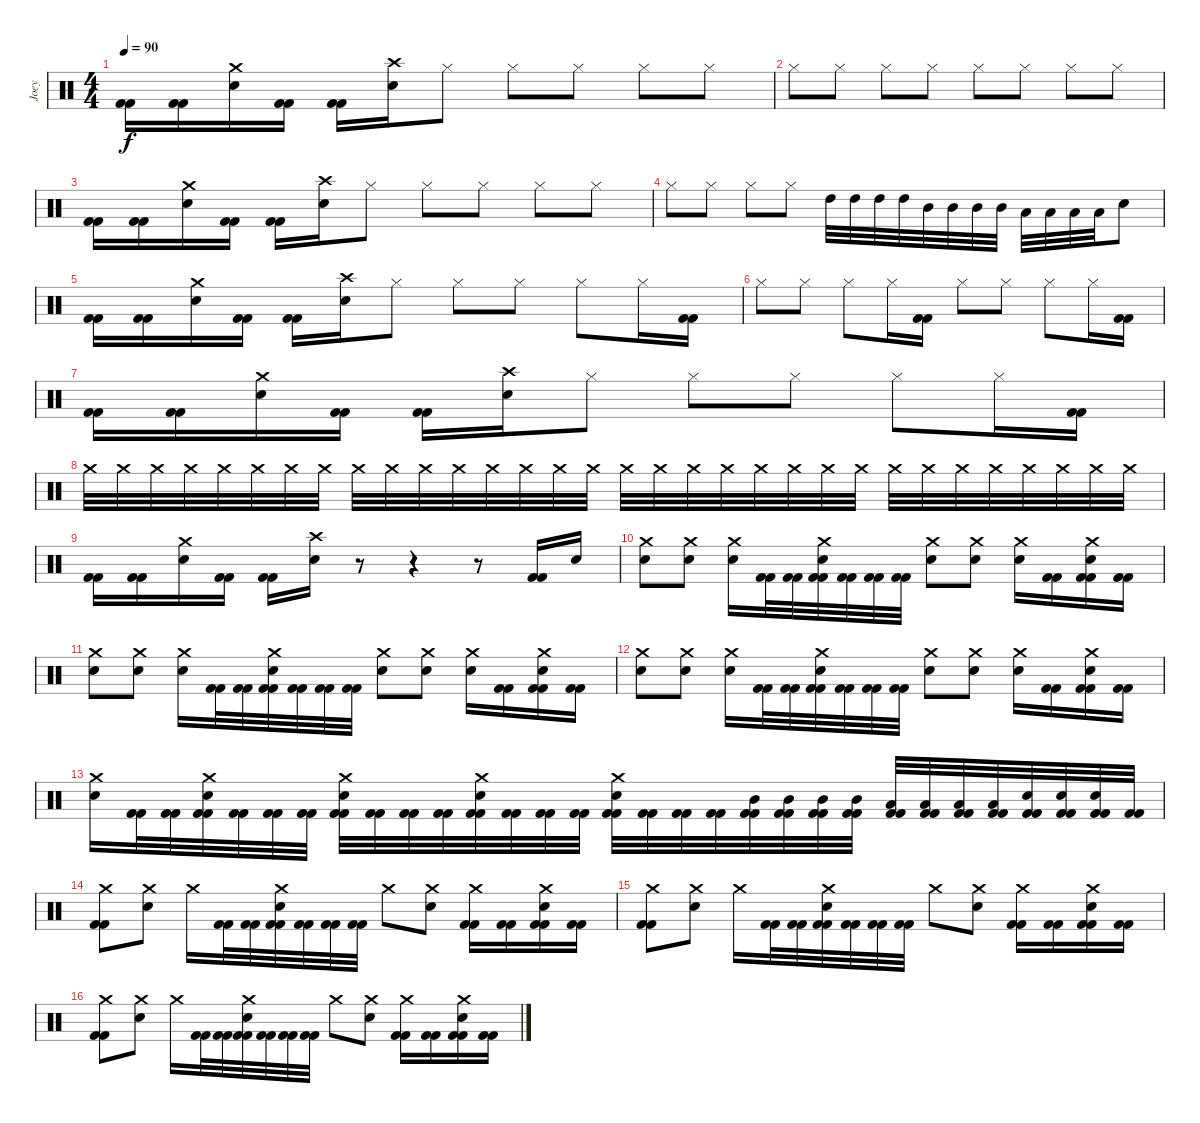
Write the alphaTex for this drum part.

\track ("Joey" "Joey") {instrument percussion}
\staff {score}
\articulation defaults
\ts (4 4)
\tempo 90
\clef neutral
\ks c
("Kick (hit) 2" "Kick (hit) 2").16{dy f} ("Kick (hit) 2" "Kick (hit) 2").16 ("Electric Snare (hit)" "Crash medium (hit)").16 ("Kick (hit) 2" "Kick (hit) 2").16 ("Kick (hit) 2" "Kick (hit) 2").16 ("Electric Snare (hit)" "Crash high (hit)").16 "Hi-Hat (closed)".8 "Hi-Hat (closed)".8 "Hi-Hat (closed)".8 "Hi-Hat (closed)".8 "Hi-Hat (closed)".8 |
"Hi-Hat (closed)".8 "Hi-Hat (closed)".8 "Hi-Hat (closed)".8 "Hi-Hat (closed)".8 "Hi-Hat (closed)".8 "Hi-Hat (closed)".8 "Hi-Hat (closed)".8 "Hi-Hat (closed)".8 |
("Kick (hit) 2" "Kick (hit) 2").16 ("Kick (hit) 2" "Kick (hit) 2").16 ("Electric Snare (hit)" "Crash medium (hit)").16 ("Kick (hit) 2" "Kick (hit) 2").16 ("Kick (hit) 2" "Kick (hit) 2").16 ("Electric Snare (hit)" "Crash high (hit)").16 "Hi-Hat (closed)".8 "Hi-Hat (closed)".8 "Hi-Hat (closed)".8 "Hi-Hat (closed)".8 "Hi-Hat (closed)".8 |
"Hi-Hat (closed)".8 "Hi-Hat (closed)".8 "Hi-Hat (closed)".8 "Hi-Hat (closed)".8 "High Tom (hit)".32 "High Tom (hit)".32 "High Tom (hit)".32 "High Tom (hit)".32 "Mid Tom (hit)".32 "Mid Tom (hit)".32 "Mid Tom (hit)".32 "Mid Tom (hit)".32 "Low Tom (hit)".32 "Low Tom (hit)".32 "Low Tom (hit)".32 "Low Tom (hit)".32 "Electric Snare (hit)".8 |
("Kick (hit) 2" "Kick (hit) 2").16 ("Kick (hit) 2" "Kick (hit) 2").16 ("Electric Snare (hit)" "Crash medium (hit)").16 ("Kick (hit) 2" "Kick (hit) 2").16 ("Kick (hit) 2" "Kick (hit) 2").16 ("Electric Snare (hit)" "Crash high (hit)").16 "Hi-Hat (closed)".8 "Hi-Hat (closed)".8 "Hi-Hat (closed)".8 "Hi-Hat (closed)".8 "Hi-Hat (closed)".16 ("Kick (hit) 2" "Kick (hit) 2").16 |
"Hi-Hat (closed)".8 "Hi-Hat (closed)".8 "Hi-Hat (closed)".8 "Hi-Hat (closed)".16 ("Kick (hit) 2" "Kick (hit) 2").16 "Hi-Hat (closed)".8 "Hi-Hat (closed)".8 "Hi-Hat (closed)".8 "Hi-Hat (closed)".16 ("Kick (hit) 2" "Kick (hit) 2").16 |
("Kick (hit) 2" "Kick (hit) 2").16 ("Kick (hit) 2" "Kick (hit) 2").16 ("Electric Snare (hit)" "Crash medium (hit)").16 ("Kick (hit) 2" "Kick (hit) 2").16 ("Kick (hit) 2" "Kick (hit) 2").16 ("Electric Snare (hit)" "Crash high (hit)").16 "Hi-Hat (closed)".8 "Hi-Hat (closed)".8 "Hi-Hat (closed)".8 "Hi-Hat (closed)".8 "Hi-Hat (closed)".16 ("Kick (hit) 2" "Kick (hit) 2").16 |
"Crash medium (hit)".32{volume 5} "Crash medium (hit)".32{volume 13} "Crash medium (hit)".32 "Crash medium (hit)".32 "Crash medium (hit)".32 "Crash medium (hit)".32 "Crash medium (hit)".32 "Crash medium (hit)".32 "Crash medium (hit)".32 "Crash medium (hit)".32 "Crash medium (hit)".32 "Crash medium (hit)".32 "Crash medium (hit)".32 "Crash medium (hit)".32 "Crash medium (hit)".32 "Crash medium (hit)".32 "Crash medium (hit)".32 "Crash medium (hit)".32 "Crash medium (hit)".32 "Crash medium (hit)".32 "Crash medium (hit)".32 "Crash medium (hit)".32 "Crash medium (hit)".32 "Crash medium (hit)".32 "Crash medium (hit)".32 "Crash medium (hit)".32 "Crash medium (hit)".32 "Crash medium (hit)".32 "Crash medium (hit)".32 "Crash medium (hit)".32 "Crash medium (hit)".32 "Crash medium (hit)".32 |
("Kick (hit) 2" "Kick (hit) 2").16 ("Kick (hit) 2" "Kick (hit) 2").16 ("Electric Snare (hit)" "Crash medium (hit)").16 ("Kick (hit) 2" "Kick (hit) 2").16 ("Kick (hit) 2" "Kick (hit) 2").16 ("Electric Snare (hit)" "Crash high (hit)").16 r.8 r.4 r.8 ("Kick (hit) 2" "Kick (hit) 2").16 "Electric Snare (hit)".16 |
("Electric Snare (hit)" "Crash medium (hit)").8 ("Electric Snare (hit)" "Crash medium (hit)").8 ("Electric Snare (hit)" "Crash medium (hit)").16 ("Kick (hit) 2" "Kick (hit) 2").32 ("Kick (hit) 2" "Kick (hit) 2").32 ("Electric Snare (hit)" "Crash medium (hit)" "Kick (hit) 2" "Kick (hit) 2").32 ("Kick (hit) 2" "Kick (hit) 2").32 ("Kick (hit) 2" "Kick (hit) 2").32 ("Kick (hit) 2" "Kick (hit) 2").32 ("Electric Snare (hit)" "Crash medium (hit)").8 ("Electric Snare (hit)" "Crash medium (hit)").8 ("Electric Snare (hit)" "Crash medium (hit)").16 ("Kick (hit) 2" "Kick (hit) 2").16 ("Electric Snare (hit)" "Crash medium (hit)" "Kick (hit) 2" "Kick (hit) 2").16 ("Kick (hit) 2" "Kick (hit) 2").16 |
("Electric Snare (hit)" "Crash medium (hit)").8 ("Electric Snare (hit)" "Crash medium (hit)").8 ("Electric Snare (hit)" "Crash medium (hit)").16 ("Kick (hit) 2" "Kick (hit) 2").32 ("Kick (hit) 2" "Kick (hit) 2").32 ("Electric Snare (hit)" "Crash medium (hit)" "Kick (hit) 2" "Kick (hit) 2").32 ("Kick (hit) 2" "Kick (hit) 2").32 ("Kick (hit) 2" "Kick (hit) 2").32 ("Kick (hit) 2" "Kick (hit) 2").32 ("Electric Snare (hit)" "Crash medium (hit)").8 ("Electric Snare (hit)" "Crash medium (hit)").8 ("Electric Snare (hit)" "Crash medium (hit)").16 ("Kick (hit) 2" "Kick (hit) 2").16 ("Electric Snare (hit)" "Crash medium (hit)" "Kick (hit) 2" "Kick (hit) 2").16 ("Kick (hit) 2" "Kick (hit) 2").16 |
("Electric Snare (hit)" "Crash medium (hit)").8 ("Electric Snare (hit)" "Crash medium (hit)").8 ("Electric Snare (hit)" "Crash medium (hit)").16 ("Kick (hit) 2" "Kick (hit) 2").32 ("Kick (hit) 2" "Kick (hit) 2").32 ("Electric Snare (hit)" "Crash medium (hit)" "Kick (hit) 2" "Kick (hit) 2").32 ("Kick (hit) 2" "Kick (hit) 2").32 ("Kick (hit) 2" "Kick (hit) 2").32 ("Kick (hit) 2" "Kick (hit) 2").32 ("Electric Snare (hit)" "Crash medium (hit)").8 ("Electric Snare (hit)" "Crash medium (hit)").8 ("Electric Snare (hit)" "Crash medium (hit)").16 ("Kick (hit) 2" "Kick (hit) 2").16 ("Electric Snare (hit)" "Crash medium (hit)" "Kick (hit) 2" "Kick (hit) 2").16 ("Kick (hit) 2" "Kick (hit) 2").16 |
("Electric Snare (hit)" "Crash medium (hit)").16 ("Kick (hit) 2" "Kick (hit) 2").32 ("Kick (hit) 2" "Kick (hit) 2").32 ("Electric Snare (hit)" "Crash medium (hit)" "Kick (hit) 2" "Kick (hit) 2").32 ("Kick (hit) 2" "Kick (hit) 2").32 ("Kick (hit) 2" "Kick (hit) 2").32 ("Kick (hit) 2" "Kick (hit) 2").32 ("Electric Snare (hit)" "Crash medium (hit)" "Kick (hit) 2" "Kick (hit) 2").32 ("Kick (hit) 2" "Kick (hit) 2").32 ("Kick (hit) 2" "Kick (hit) 2").32 ("Kick (hit) 2" "Kick (hit) 2").32 ("Electric Snare (hit)" "Crash medium (hit)" "Kick (hit) 2" "Kick (hit) 2").32 ("Kick (hit) 2" "Kick (hit) 2").32 ("Kick (hit) 2" "Kick (hit) 2").32 ("Kick (hit) 2" "Kick (hit) 2").32 ("Electric Snare (hit)" "Crash medium (hit)" "Kick (hit) 2" "Kick (hit) 2").32 ("Kick (hit) 2" "Kick (hit) 2").32 ("Kick (hit) 2" "Kick (hit) 2").32 ("Kick (hit) 2" "Kick (hit) 2").32 ("Mid Tom (hit)" "Kick (hit) 2" "Kick (hit) 2").32 ("Mid Tom (hit)" "Kick (hit) 2" "Kick (hit) 2").32 ("Mid Tom (hit)" "Kick (hit) 2" "Kick (hit) 2").32 ("Mid Tom (hit)" "Kick (hit) 2" "Kick (hit) 2").32 ("Low Tom (hit)" "Kick (hit) 2" "Kick (hit) 2").32 ("Low Tom (hit)" "Kick (hit) 2" "Kick (hit) 2").32 ("Low Tom (hit)" "Kick (hit) 2" "Kick (hit) 2").32 ("Low Tom (hit)" "Kick (hit) 2" "Kick (hit) 2").32 ("Electric Snare (hit)" "Kick (hit) 2" "Kick (hit) 2").32 ("Electric Snare (hit)" "Kick (hit) 2" "Kick (hit) 2").32 ("Electric Snare (hit)" "Kick (hit) 2" "Kick (hit) 2").32 ("Kick (hit) 2" "Kick (hit) 2").32 |
("Crash medium (hit)" "Kick (hit) 2" "Kick (hit) 2").8 ("Electric Snare (hit)" "Crash medium (hit)").8 "Crash medium (hit)".16 ("Kick (hit) 2" "Kick (hit) 2").32 ("Kick (hit) 2" "Kick (hit) 2").32 ("Electric Snare (hit)" "Crash medium (hit)" "Kick (hit) 2" "Kick (hit) 2").32 ("Kick (hit) 2" "Kick (hit) 2").32 ("Kick (hit) 2" "Kick (hit) 2").32 ("Kick (hit) 2" "Kick (hit) 2").32 "Crash medium (hit)".8 ("Electric Snare (hit)" "Crash medium (hit)").8 ("Crash medium (hit)" "Kick (hit) 2" "Kick (hit) 2").16 ("Kick (hit) 2" "Kick (hit) 2").16 ("Electric Snare (hit)" "Crash medium (hit)" "Kick (hit) 2" "Kick (hit) 2").16 ("Kick (hit) 2" "Kick (hit) 2").16 |
("Crash medium (hit)" "Kick (hit) 2" "Kick (hit) 2").8 ("Electric Snare (hit)" "Crash medium (hit)").8 "Crash medium (hit)".16 ("Kick (hit) 2" "Kick (hit) 2").32 ("Kick (hit) 2" "Kick (hit) 2").32 ("Electric Snare (hit)" "Crash medium (hit)" "Kick (hit) 2" "Kick (hit) 2").32 ("Kick (hit) 2" "Kick (hit) 2").32 ("Kick (hit) 2" "Kick (hit) 2").32 ("Kick (hit) 2" "Kick (hit) 2").32 "Crash medium (hit)".8 ("Electric Snare (hit)" "Crash medium (hit)").8 ("Crash medium (hit)" "Kick (hit) 2" "Kick (hit) 2").16 ("Kick (hit) 2" "Kick (hit) 2").16 ("Electric Snare (hit)" "Crash medium (hit)" "Kick (hit) 2" "Kick (hit) 2").16 ("Kick (hit) 2" "Kick (hit) 2").16 |
("Crash medium (hit)" "Kick (hit) 2" "Kick (hit) 2").8 ("Electric Snare (hit)" "Crash medium (hit)").8 "Crash medium (hit)".16 ("Kick (hit) 2" "Kick (hit) 2").32 ("Kick (hit) 2" "Kick (hit) 2").32 ("Electric Snare (hit)" "Crash medium (hit)" "Kick (hit) 2" "Kick (hit) 2").32 ("Kick (hit) 2" "Kick (hit) 2").32 ("Kick (hit) 2" "Kick (hit) 2").32 ("Kick (hit) 2" "Kick (hit) 2").32 "Crash medium (hit)".8 ("Electric Snare (hit)" "Crash medium (hit)").8 ("Crash medium (hit)" "Kick (hit) 2" "Kick (hit) 2").16 ("Kick (hit) 2" "Kick (hit) 2").16 ("Electric Snare (hit)" "Crash medium (hit)" "Kick (hit) 2" "Kick (hit) 2").16 ("Kick (hit) 2" "Kick (hit) 2").16
